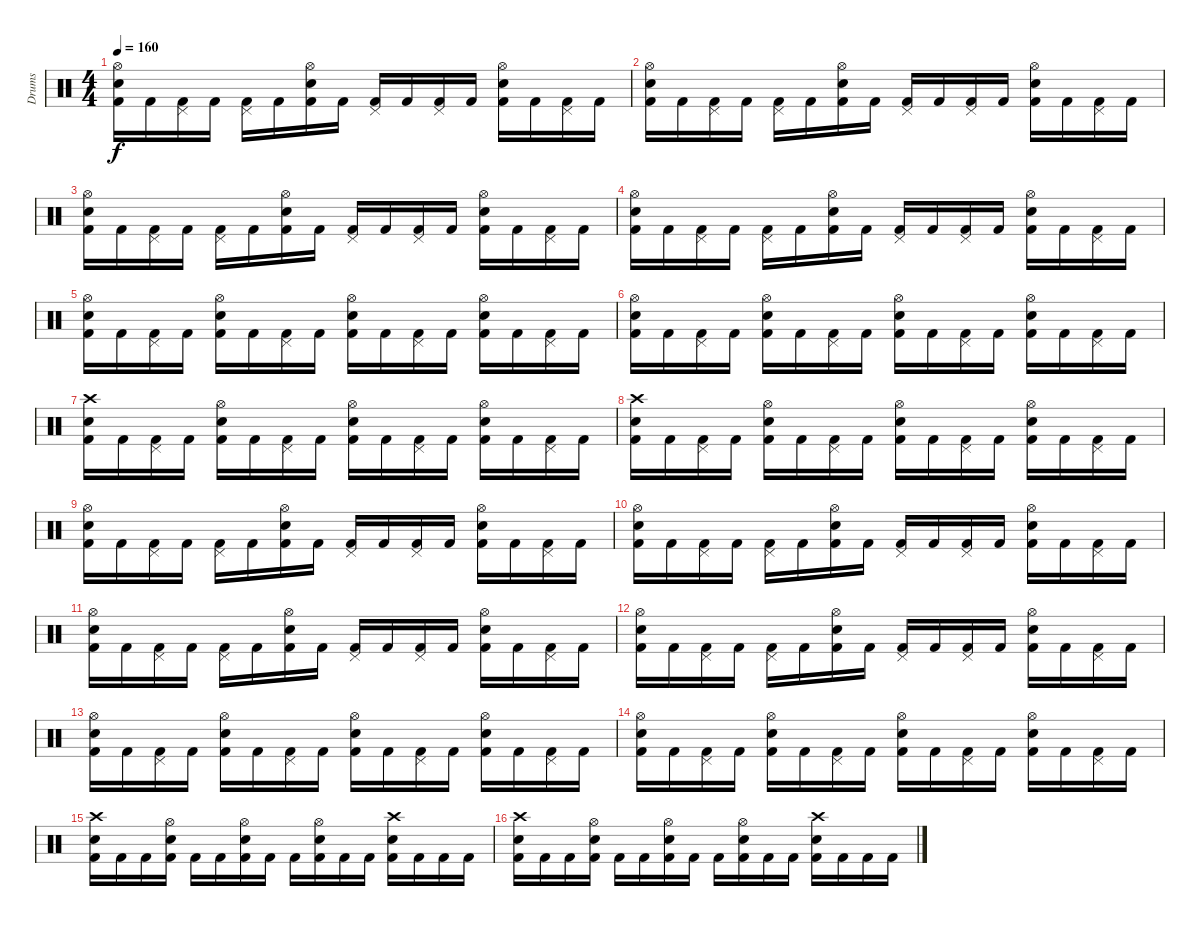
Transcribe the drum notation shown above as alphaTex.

\track ("Drums" "Drums") {instrument percussion}
\staff {score}
\articulation defaults
\ts (4 4)
\tempo 160
\clef neutral
\ks c
("Hi-Hat (open)" "Electric Snare (hit)" "Kick (hit) 2").16{dy f} "Kick (hit) 2".16 ("Pedal Hi-Hat (hit)" "Kick (hit) 2").16 "Kick (hit) 2".16 ("Pedal Hi-Hat (hit)" "Kick (hit) 2").16 "Kick (hit) 2".16 ("Hi-Hat (open)" "Snare (hit) 2" "Kick (hit) 2").16 "Kick (hit) 2".16 ("Pedal Hi-Hat (hit)" "Kick (hit) 2").16 "Kick (hit) 2".16 ("Pedal Hi-Hat (hit)" "Kick (hit) 2").16 "Kick (hit) 2".16 ("Hi-Hat (open)" "Electric Snare (hit)" "Kick (hit) 2").16 "Kick (hit) 2".16 ("Pedal Hi-Hat (hit)" "Kick (hit) 2").16 "Kick (hit) 2".16 |
("Hi-Hat (open)" "Electric Snare (hit)" "Kick (hit) 2").16 "Kick (hit) 2".16 ("Pedal Hi-Hat (hit)" "Kick (hit) 2").16 "Kick (hit) 2".16 ("Pedal Hi-Hat (hit)" "Kick (hit) 2").16 "Kick (hit) 2".16 ("Hi-Hat (open)" "Snare (hit) 2" "Kick (hit) 2").16 "Kick (hit) 2".16 ("Pedal Hi-Hat (hit)" "Kick (hit) 2").16 "Kick (hit) 2".16 ("Pedal Hi-Hat (hit)" "Kick (hit) 2").16 "Kick (hit) 2".16 ("Hi-Hat (open)" "Electric Snare (hit)" "Kick (hit) 2").16 "Kick (hit) 2".16 ("Pedal Hi-Hat (hit)" "Kick (hit) 2").16 "Kick (hit) 2".16 |
("Hi-Hat (open)" "Electric Snare (hit)" "Kick (hit) 2").16 "Kick (hit) 2".16 ("Pedal Hi-Hat (hit)" "Kick (hit) 2").16 "Kick (hit) 2".16 ("Pedal Hi-Hat (hit)" "Kick (hit) 2").16 "Kick (hit) 2".16 ("Hi-Hat (open)" "Snare (hit) 2" "Kick (hit) 2").16 "Kick (hit) 2".16 ("Pedal Hi-Hat (hit)" "Kick (hit) 2").16 "Kick (hit) 2".16 ("Pedal Hi-Hat (hit)" "Kick (hit) 2").16 "Kick (hit) 2".16 ("Hi-Hat (open)" "Electric Snare (hit)" "Kick (hit) 2").16 "Kick (hit) 2".16 ("Pedal Hi-Hat (hit)" "Kick (hit) 2").16 "Kick (hit) 2".16 |
("Hi-Hat (open)" "Electric Snare (hit)" "Kick (hit) 2").16 "Kick (hit) 2".16 ("Pedal Hi-Hat (hit)" "Kick (hit) 2").16 "Kick (hit) 2".16 ("Pedal Hi-Hat (hit)" "Kick (hit) 2").16 "Kick (hit) 2".16 ("Hi-Hat (open)" "Snare (hit) 2" "Kick (hit) 2").16 "Kick (hit) 2".16 ("Pedal Hi-Hat (hit)" "Kick (hit) 2").16 "Kick (hit) 2".16 ("Pedal Hi-Hat (hit)" "Kick (hit) 2").16 "Kick (hit) 2".16 ("Hi-Hat (open)" "Electric Snare (hit)" "Kick (hit) 2").16 "Kick (hit) 2".16 ("Pedal Hi-Hat (hit)" "Kick (hit) 2").16 "Kick (hit) 2".16 |
("Hi-Hat (open)" "Electric Snare (hit)" "Kick (hit) 2").16 "Kick (hit) 2".16 ("Pedal Hi-Hat (hit)" "Kick (hit) 2").16 "Kick (hit) 2".16 ("Hi-Hat (open)" "Snare (hit) 2" "Kick (hit) 2").16 "Kick (hit) 2".16 ("Pedal Hi-Hat (hit)" "Kick (hit) 2").16 "Kick (hit) 2".16 ("Hi-Hat (open)" "Electric Snare (hit)" "Kick (hit) 2").16 "Kick (hit) 2".16 ("Pedal Hi-Hat (hit)" "Kick (hit) 2").16 "Kick (hit) 2".16 ("Hi-Hat (open)" "Snare (hit) 2" "Kick (hit) 2").16 "Kick (hit) 2".16 ("Pedal Hi-Hat (hit)" "Kick (hit) 2").16 "Kick (hit) 2".16 |
("Hi-Hat (open)" "Electric Snare (hit)" "Kick (hit) 2").16 "Kick (hit) 2".16 ("Pedal Hi-Hat (hit)" "Kick (hit) 2").16 "Kick (hit) 2".16 ("Hi-Hat (open)" "Snare (hit) 2" "Kick (hit) 2").16 "Kick (hit) 2".16 ("Pedal Hi-Hat (hit)" "Kick (hit) 2").16 "Kick (hit) 2".16 ("Hi-Hat (open)" "Electric Snare (hit)" "Kick (hit) 2").16 "Kick (hit) 2".16 ("Pedal Hi-Hat (hit)" "Kick (hit) 2").16 "Kick (hit) 2".16 ("Hi-Hat (open)" "Snare (hit) 2" "Kick (hit) 2").16 "Kick (hit) 2".16 ("Pedal Hi-Hat (hit)" "Kick (hit) 2").16 "Kick (hit) 2".16 |
("Crash high (hit)" "Electric Snare (hit)" "Kick (hit) 2").16 "Kick (hit) 2".16 ("Pedal Hi-Hat (hit)" "Kick (hit) 2").16 "Kick (hit) 2".16 ("Hi-Hat (open)" "Snare (hit) 2" "Kick (hit) 2").16 "Kick (hit) 2".16 ("Pedal Hi-Hat (hit)" "Kick (hit) 2").16 "Kick (hit) 2".16 ("Hi-Hat (open)" "Electric Snare (hit)" "Kick (hit) 2").16 "Kick (hit) 2".16 ("Pedal Hi-Hat (hit)" "Kick (hit) 2").16 "Kick (hit) 2".16 ("Hi-Hat (open)" "Snare (hit) 2" "Kick (hit) 2").16 "Kick (hit) 2".16 ("Pedal Hi-Hat (hit)" "Kick (hit) 2").16 "Kick (hit) 2".16 |
("Crash high (hit)" "Electric Snare (hit)" "Kick (hit) 2").16 "Kick (hit) 2".16 ("Pedal Hi-Hat (hit)" "Kick (hit) 2").16 "Kick (hit) 2".16 ("Hi-Hat (open)" "Snare (hit) 2" "Kick (hit) 2").16 "Kick (hit) 2".16 ("Pedal Hi-Hat (hit)" "Kick (hit) 2").16 "Kick (hit) 2".16 ("Hi-Hat (open)" "Electric Snare (hit)" "Kick (hit) 2").16 "Kick (hit) 2".16 ("Pedal Hi-Hat (hit)" "Kick (hit) 2").16 "Kick (hit) 2".16 ("Hi-Hat (open)" "Snare (hit) 2" "Kick (hit) 2").16 "Kick (hit) 2".16 ("Pedal Hi-Hat (hit)" "Kick (hit) 2").16 "Kick (hit) 2".16 |
("Hi-Hat (open)" "Electric Snare (hit)" "Kick (hit) 2").16 "Kick (hit) 2".16 ("Pedal Hi-Hat (hit)" "Kick (hit) 2").16 "Kick (hit) 2".16 ("Pedal Hi-Hat (hit)" "Kick (hit) 2").16 "Kick (hit) 2".16 ("Hi-Hat (open)" "Snare (hit) 2" "Kick (hit) 2").16 "Kick (hit) 2".16 ("Pedal Hi-Hat (hit)" "Kick (hit) 2").16 "Kick (hit) 2".16 ("Pedal Hi-Hat (hit)" "Kick (hit) 2").16 "Kick (hit) 2".16 ("Hi-Hat (open)" "Electric Snare (hit)" "Kick (hit) 2").16 "Kick (hit) 2".16 ("Pedal Hi-Hat (hit)" "Kick (hit) 2").16 "Kick (hit) 2".16 |
("Hi-Hat (open)" "Electric Snare (hit)" "Kick (hit) 2").16 "Kick (hit) 2".16 ("Pedal Hi-Hat (hit)" "Kick (hit) 2").16 "Kick (hit) 2".16 ("Pedal Hi-Hat (hit)" "Kick (hit) 2").16 "Kick (hit) 2".16 ("Hi-Hat (open)" "Snare (hit) 2" "Kick (hit) 2").16 "Kick (hit) 2".16 ("Pedal Hi-Hat (hit)" "Kick (hit) 2").16 "Kick (hit) 2".16 ("Pedal Hi-Hat (hit)" "Kick (hit) 2").16 "Kick (hit) 2".16 ("Hi-Hat (open)" "Electric Snare (hit)" "Kick (hit) 2").16 "Kick (hit) 2".16 ("Pedal Hi-Hat (hit)" "Kick (hit) 2").16 "Kick (hit) 2".16 |
("Hi-Hat (open)" "Electric Snare (hit)" "Kick (hit) 2").16 "Kick (hit) 2".16 ("Pedal Hi-Hat (hit)" "Kick (hit) 2").16 "Kick (hit) 2".16 ("Pedal Hi-Hat (hit)" "Kick (hit) 2").16 "Kick (hit) 2".16 ("Hi-Hat (open)" "Snare (hit) 2" "Kick (hit) 2").16 "Kick (hit) 2".16 ("Pedal Hi-Hat (hit)" "Kick (hit) 2").16 "Kick (hit) 2".16 ("Pedal Hi-Hat (hit)" "Kick (hit) 2").16 "Kick (hit) 2".16 ("Hi-Hat (open)" "Electric Snare (hit)" "Kick (hit) 2").16 "Kick (hit) 2".16 ("Pedal Hi-Hat (hit)" "Kick (hit) 2").16 "Kick (hit) 2".16 |
("Hi-Hat (open)" "Electric Snare (hit)" "Kick (hit) 2").16 "Kick (hit) 2".16 ("Pedal Hi-Hat (hit)" "Kick (hit) 2").16 "Kick (hit) 2".16 ("Pedal Hi-Hat (hit)" "Kick (hit) 2").16 "Kick (hit) 2".16 ("Hi-Hat (open)" "Snare (hit) 2" "Kick (hit) 2").16 "Kick (hit) 2".16 ("Pedal Hi-Hat (hit)" "Kick (hit) 2").16 "Kick (hit) 2".16 ("Pedal Hi-Hat (hit)" "Kick (hit) 2").16 "Kick (hit) 2".16 ("Hi-Hat (open)" "Electric Snare (hit)" "Kick (hit) 2").16 "Kick (hit) 2".16 ("Pedal Hi-Hat (hit)" "Kick (hit) 2").16 "Kick (hit) 2".16 |
("Hi-Hat (open)" "Electric Snare (hit)" "Kick (hit) 2").16 "Kick (hit) 2".16 ("Pedal Hi-Hat (hit)" "Kick (hit) 2").16 "Kick (hit) 2".16 ("Hi-Hat (open)" "Snare (hit) 2" "Kick (hit) 2").16 "Kick (hit) 2".16 ("Pedal Hi-Hat (hit)" "Kick (hit) 2").16 "Kick (hit) 2".16 ("Hi-Hat (open)" "Electric Snare (hit)" "Kick (hit) 2").16 "Kick (hit) 2".16 ("Pedal Hi-Hat (hit)" "Kick (hit) 2").16 "Kick (hit) 2".16 ("Hi-Hat (open)" "Snare (hit) 2" "Kick (hit) 2").16 "Kick (hit) 2".16 ("Pedal Hi-Hat (hit)" "Kick (hit) 2").16 "Kick (hit) 2".16 |
("Hi-Hat (open)" "Electric Snare (hit)" "Kick (hit) 2").16 "Kick (hit) 2".16 ("Pedal Hi-Hat (hit)" "Kick (hit) 2").16 "Kick (hit) 2".16 ("Hi-Hat (open)" "Snare (hit) 2" "Kick (hit) 2").16 "Kick (hit) 2".16 ("Pedal Hi-Hat (hit)" "Kick (hit) 2").16 "Kick (hit) 2".16 ("Hi-Hat (open)" "Electric Snare (hit)" "Kick (hit) 2").16 "Kick (hit) 2".16 ("Pedal Hi-Hat (hit)" "Kick (hit) 2").16 "Kick (hit) 2".16 ("Hi-Hat (open)" "Snare (hit) 2" "Kick (hit) 2").16 "Kick (hit) 2".16 ("Pedal Hi-Hat (hit)" "Kick (hit) 2").16 "Kick (hit) 2".16 |
("Crash high (hit)" "Electric Snare (hit)" "Kick (hit) 2").16 "Kick (hit) 2".16 "Kick (hit) 2".16 ("Hi-Hat (open)" "Electric Snare (hit)" "Kick (hit) 2").16 "Kick (hit) 2".16 "Kick (hit) 2".16 ("Hi-Hat (open)" "Electric Snare (hit)" "Kick (hit) 2").16 "Kick (hit) 2".16 "Kick (hit) 2".16 ("Hi-Hat (open)" "Electric Snare (hit)" "Kick (hit) 2").16 "Kick (hit) 2".16 "Kick (hit) 2".16 ("Crash high (hit)" "Electric Snare (hit)" "Kick (hit) 2").16 "Kick (hit) 2".16 "Kick (hit) 2".16 "Kick (hit) 2".16 |
("Crash high (hit)" "Electric Snare (hit)" "Kick (hit) 2").16 "Kick (hit) 2".16 "Kick (hit) 2".16 ("Hi-Hat (open)" "Electric Snare (hit)" "Kick (hit) 2").16 "Kick (hit) 2".16 "Kick (hit) 2".16 ("Hi-Hat (open)" "Electric Snare (hit)" "Kick (hit) 2").16 "Kick (hit) 2".16 "Kick (hit) 2".16 ("Hi-Hat (open)" "Electric Snare (hit)" "Kick (hit) 2").16 "Kick (hit) 2".16 "Kick (hit) 2".16 ("Crash high (hit)" "Electric Snare (hit)" "Kick (hit) 2").16 "Kick (hit) 2".16 "Kick (hit) 2".16 "Kick (hit) 2".16
